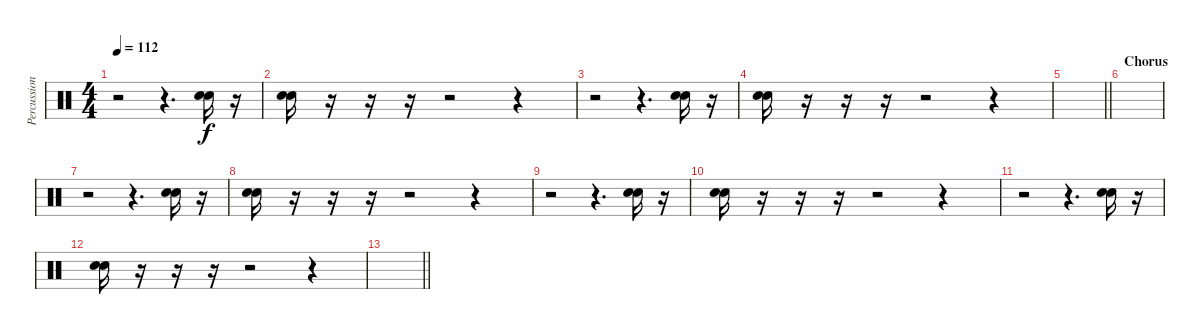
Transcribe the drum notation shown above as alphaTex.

\track ("Percussion" "Percussion") {instrument percussion}
\staff {score}
\articulation defaults
\ts (4 4)
\tempo 112
\clef neutral
\ks c
r.2{dy f} r.4{d} ("Hand Clap (hit)" "Hand Clap (hit)").16 r.16 |
("Hand Clap (hit)" "Hand Clap (hit)").16 r.16 r.16 r.16 r.2 r.4 |
r.2 r.4{d} ("Hand Clap (hit)" "Hand Clap (hit)").16 r.16 |
("Hand Clap (hit)" "Hand Clap (hit)").16 r.16 r.16 r.16 r.2 r.4 |
\barLineRight lightlight
|
\section ("" "Chorus")
|
r.2 r.4{d} ("Hand Clap (hit)" "Hand Clap (hit)").16 r.16 |
("Hand Clap (hit)" "Hand Clap (hit)").16 r.16 r.16 r.16 r.2 r.4 |
r.2 r.4{d} ("Hand Clap (hit)" "Hand Clap (hit)").16 r.16 |
("Hand Clap (hit)" "Hand Clap (hit)").16 r.16 r.16 r.16 r.2 r.4 |
r.2 r.4{d} ("Hand Clap (hit)" "Hand Clap (hit)").16 r.16 |
("Hand Clap (hit)" "Hand Clap (hit)").16 r.16 r.16 r.16 r.2 r.4 |
\barLineRight lightlight
